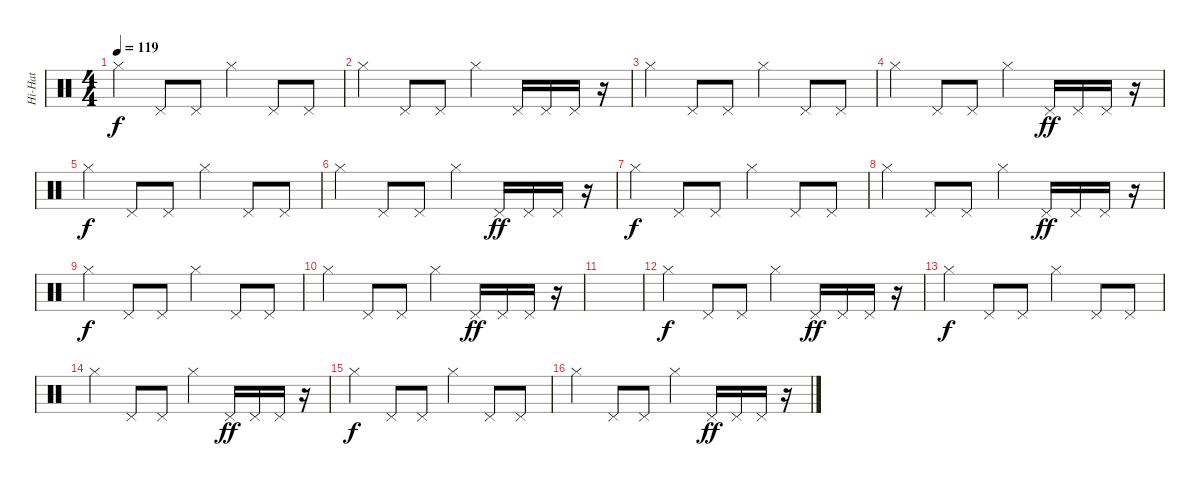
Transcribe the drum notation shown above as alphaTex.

\track ("Hi-Hat" "Hi-Hat") {instrument percussion}
\staff {score}
\articulation defaults
\ts (4 4)
\tempo 119
\clef neutral
\ks c "Hi-Hat (closed)".4{dy f} "Pedal Hi-Hat (hit)".8 "Pedal Hi-Hat (hit)".8 "Hi-Hat (closed)".4 "Pedal Hi-Hat (hit)".8 "Pedal Hi-Hat (hit)".8
|
"Hi-Hat (closed)".4 "Pedal Hi-Hat (hit)".8 "Pedal Hi-Hat (hit)".8 "Hi-Hat (closed)".4 "Pedal Hi-Hat (hit)".16 "Pedal Hi-Hat (hit)".16 "Pedal Hi-Hat (hit)".16 r.16 |
"Hi-Hat (closed)".4 "Pedal Hi-Hat (hit)".8 "Pedal Hi-Hat (hit)".8 "Hi-Hat (closed)".4 "Pedal Hi-Hat (hit)".8 "Pedal Hi-Hat (hit)".8 |
"Hi-Hat (closed)".4 "Pedal Hi-Hat (hit)".8 "Pedal Hi-Hat (hit)".8 "Hi-Hat (closed)".4 "Pedal Hi-Hat (hit)".16{dy ff} "Pedal Hi-Hat (hit)".16 "Pedal Hi-Hat (hit)".16 r.16 |
"Hi-Hat (closed)".4{dy f} "Pedal Hi-Hat (hit)".8 "Pedal Hi-Hat (hit)".8 "Hi-Hat (closed)".4 "Pedal Hi-Hat (hit)".8 "Pedal Hi-Hat (hit)".8 |
"Hi-Hat (closed)".4 "Pedal Hi-Hat (hit)".8 "Pedal Hi-Hat (hit)".8 "Hi-Hat (closed)".4 "Pedal Hi-Hat (hit)".16{dy ff} "Pedal Hi-Hat (hit)".16 "Pedal Hi-Hat (hit)".16 r.16 |
"Hi-Hat (closed)".4{dy f} "Pedal Hi-Hat (hit)".8 "Pedal Hi-Hat (hit)".8 "Hi-Hat (closed)".4 "Pedal Hi-Hat (hit)".8 "Pedal Hi-Hat (hit)".8 |
"Hi-Hat (closed)".4 "Pedal Hi-Hat (hit)".8 "Pedal Hi-Hat (hit)".8 "Hi-Hat (closed)".4 "Pedal Hi-Hat (hit)".16{dy ff} "Pedal Hi-Hat (hit)".16 "Pedal Hi-Hat (hit)".16 r.16 |
"Hi-Hat (closed)".4{dy f} "Pedal Hi-Hat (hit)".8 "Pedal Hi-Hat (hit)".8 "Hi-Hat (closed)".4 "Pedal Hi-Hat (hit)".8 "Pedal Hi-Hat (hit)".8 |
"Hi-Hat (closed)".4 "Pedal Hi-Hat (hit)".8 "Pedal Hi-Hat (hit)".8 "Hi-Hat (closed)".4 "Pedal Hi-Hat (hit)".16{dy ff} "Pedal Hi-Hat (hit)".16 "Pedal Hi-Hat (hit)".16 r.16 |
|
"Hi-Hat (closed)".4{dy f} "Pedal Hi-Hat (hit)".8 "Pedal Hi-Hat (hit)".8 "Hi-Hat (closed)".4 "Pedal Hi-Hat (hit)".16{dy ff} "Pedal Hi-Hat (hit)".16 "Pedal Hi-Hat (hit)".16 r.16 |
"Hi-Hat (closed)".4{dy f} "Pedal Hi-Hat (hit)".8 "Pedal Hi-Hat (hit)".8 "Hi-Hat (closed)".4 "Pedal Hi-Hat (hit)".8 "Pedal Hi-Hat (hit)".8 |
"Hi-Hat (closed)".4 "Pedal Hi-Hat (hit)".8 "Pedal Hi-Hat (hit)".8 "Hi-Hat (closed)".4 "Pedal Hi-Hat (hit)".16{dy ff} "Pedal Hi-Hat (hit)".16 "Pedal Hi-Hat (hit)".16 r.16 |
"Hi-Hat (closed)".4{dy f} "Pedal Hi-Hat (hit)".8 "Pedal Hi-Hat (hit)".8 "Hi-Hat (closed)".4 "Pedal Hi-Hat (hit)".8 "Pedal Hi-Hat (hit)".8 |
"Hi-Hat (closed)".4 "Pedal Hi-Hat (hit)".8 "Pedal Hi-Hat (hit)".8 "Hi-Hat (closed)".4 "Pedal Hi-Hat (hit)".16{dy ff} "Pedal Hi-Hat (hit)".16 "Pedal Hi-Hat (hit)".16 r.16
